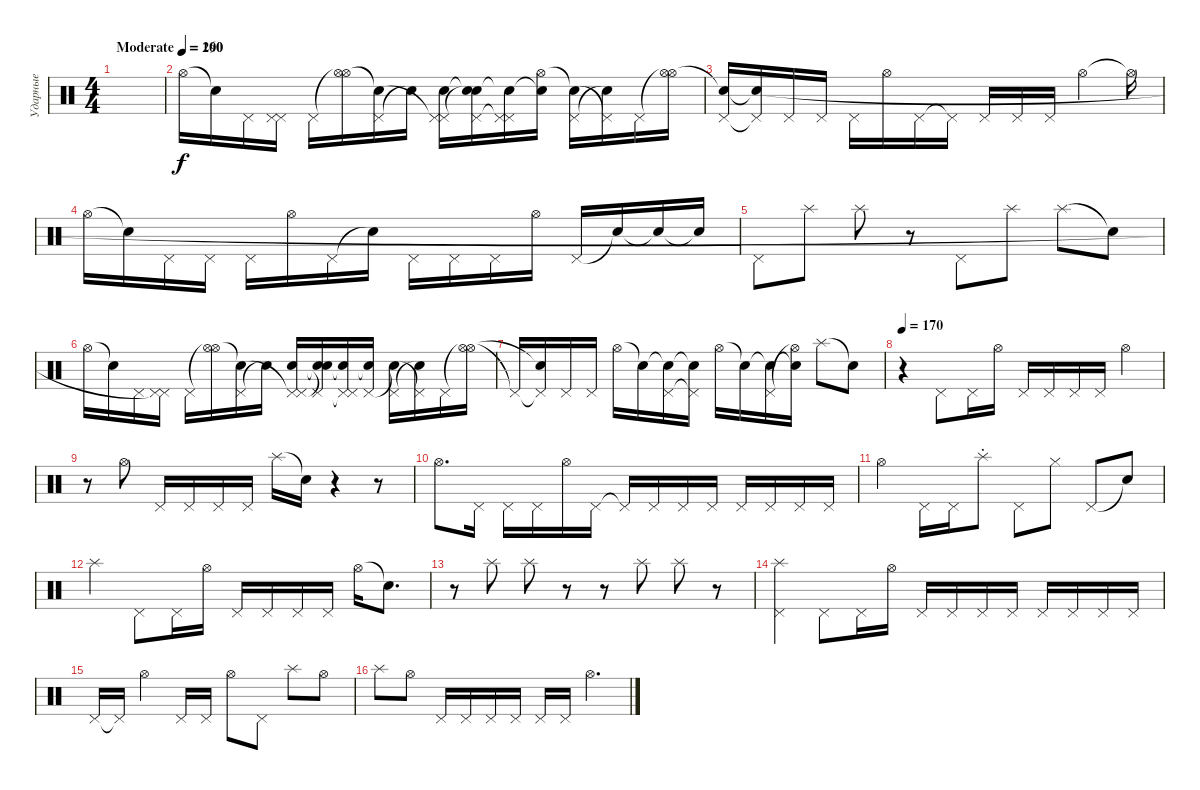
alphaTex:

\track ("Ударные" "Ударные") {instrument percussion}
\staff {score}
\articulation defaults
\ts (4 4)
\tempo (290 "Moderate")
\clef neutral
\ks c
|
\tempo (160)
"Hi-Hat (open)".16{volume 3} "Snare (hit)"{t}.16 "Pedal Hi-Hat (hit)".16 ("Pedal Hi-Hat (hit)" "Pedal Hi-Hat (hit)").16 "Pedal Hi-Hat (hit)".16 ("Hi-Hat (open)"{t} "Hi-Hat (open)").16 ("Pedal Hi-Hat (hit)" "Snare (hit)"{t}).16 "Snare (hit)"{t}.16 ("Pedal Hi-Hat (hit)" "Pedal Hi-Hat (hit)"{t} "Snare (hit)").16 ("Snare (hit)"{t} "Pedal Hi-Hat (hit)" "Snare (hit)"{t}).16 ("Snare (hit)"{t} "Pedal Hi-Hat (hit)"{t} "Pedal Hi-Hat (hit)").16 ("Snare (hit)"{t} "Hi-Hat (open)").16 ("Pedal Hi-Hat (hit)" "Snare (hit)"{t}).16 ("Snare (hit)"{t} "Pedal Hi-Hat (hit)"{t}).16 "Pedal Hi-Hat (hit)".16 ("Hi-Hat (open)"{t} "Hi-Hat (open)").16 |
("Pedal Hi-Hat (hit)" "Snare (hit)"{t}).16 ("Pedal Hi-Hat (hit)"{t} "Snare (hit)"{t}).16 "Pedal Hi-Hat (hit)".16 "Pedal Hi-Hat (hit)".16 "Pedal Hi-Hat (hit)".16 "Hi-Hat (open)".16 "Pedal Hi-Hat (hit)".16 "Pedal Hi-Hat (hit)"{t}.16 "Pedal Hi-Hat (hit)".16 "Pedal Hi-Hat (hit)".16 "Pedal Hi-Hat (hit)".16 "Hi-Hat (open)".4 "Hi-Hat (open)"{t}.16 |
"Hi-Hat (open)".16 "Snare (hit)"{t}.16 "Pedal Hi-Hat (hit)".16 "Pedal Hi-Hat (hit)".16 "Pedal Hi-Hat (hit)".16 "Hi-Hat (open)".16 "Pedal Hi-Hat (hit)".16 "Snare (hit)"{t}.16 "Pedal Hi-Hat (hit)".16 "Pedal Hi-Hat (hit)".16 "Pedal Hi-Hat (hit)".16 "Hi-Hat (open)".16 "Pedal Hi-Hat (hit)".16 "Snare (hit)"{t}.16 "Snare (hit)"{t}.16 "Snare (hit)"{t}.16 |
"Pedal Hi-Hat (hit)".8 "Splash (hit)".8 "Splash (hit)".8 r.8 "Pedal Hi-Hat (hit)".8 "Splash (hit)".8 "Splash (hit)".8 "Snare (hit)"{t}.8 |
"Hi-Hat (open)".16 "Snare (hit)"{t}.16 "Pedal Hi-Hat (hit)".16 ("Pedal Hi-Hat (hit)" "Pedal Hi-Hat (hit)"{t}).16 "Pedal Hi-Hat (hit)".16 ("Hi-Hat (open)"{t} "Hi-Hat (open)").16 ("Pedal Hi-Hat (hit)" "Snare (hit)"{t}).16 "Snare (hit)"{t}.16 ("Pedal Hi-Hat (hit)" "Pedal Hi-Hat (hit)"{t} "Snare (hit)").16 ("Snare (hit)"{t} "Pedal Hi-Hat (hit)" "Snare (hit)"{t}).16 ("Snare (hit)"{t} "Pedal Hi-Hat (hit)"{t} "Pedal Hi-Hat (hit)").16 ("Snare (hit)"{t} "Pedal Hi-Hat (hit)").16 ("Pedal Hi-Hat (hit)" "Snare (hit)"{t}).16 ("Snare (hit)"{t} "Pedal Hi-Hat (hit)"{t}).16 "Pedal Hi-Hat (hit)".16 ("Hi-Hat (open)"{t} "Hi-Hat (open)").16 |
"Pedal Hi-Hat (hit)"{t}.16 ("Pedal Hi-Hat (hit)"{t} "Snare (hit)"{t}).16 "Pedal Hi-Hat (hit)".16 "Pedal Hi-Hat (hit)".16 "Hi-Hat (open)".16 "Snare (hit)"{t}.16 ("Snare (hit)"{t} "Pedal Hi-Hat (hit)").16 ("Snare (hit)"{t} "Pedal Hi-Hat (hit)"{t}).16 "Hi-Hat (open)".16 "Snare (hit)"{t}.16 ("Snare (hit)"{t} "Pedal Hi-Hat (hit)").16 ("Snare (hit)"{t} "Hi-Hat (open)"{t}).16 "Splash (hit)".8 "Snare (hit)"{t}.8 |
\tempo 170
r.4 "Pedal Hi-Hat (hit)".8 "Pedal Hi-Hat (hit)".16 "Hi-Hat (open)".16 "Pedal Hi-Hat (hit)".16 "Pedal Hi-Hat (hit)".16 "Pedal Hi-Hat (hit)".16 "Pedal Hi-Hat (hit)".16 "Hi-Hat (open)".4 |
r.8 "Hi-Hat (open)".8 "Pedal Hi-Hat (hit)".16 "Pedal Hi-Hat (hit)".16 "Pedal Hi-Hat (hit)".16 "Pedal Hi-Hat (hit)".16 "Splash (hit)".16 "Snare (hit)"{t}.16 r.4 r.8 |
"Hi-Hat (open)".8{d} "Pedal Hi-Hat (hit)".16 "Pedal Hi-Hat (hit)".16 "Pedal Hi-Hat (hit)".16 "Hi-Hat (open)".16 "Pedal Hi-Hat (hit)".16 "Pedal Hi-Hat (hit)"{t}.16 "Pedal Hi-Hat (hit)".16 "Pedal Hi-Hat (hit)".16 "Pedal Hi-Hat (hit)".16 "Pedal Hi-Hat (hit)".16 "Pedal Hi-Hat (hit)".16 "Pedal Hi-Hat (hit)".16 "Pedal Hi-Hat (hit)".16 |
"Hi-Hat (open)".4 "Pedal Hi-Hat (hit)".16 "Pedal Hi-Hat (hit)".16 "Splash (hit)"{st}.8 "Pedal Hi-Hat (hit)".8 "Hi-Hat (closed)".8 "Pedal Hi-Hat (hit)".8 "Snare (hit)"{t}.8 |
"Splash (hit)".4 "Pedal Hi-Hat (hit)".8 "Pedal Hi-Hat (hit)".16 "Hi-Hat (open)".16 "Pedal Hi-Hat (hit)".16 "Pedal Hi-Hat (hit)".16 "Pedal Hi-Hat (hit)".16 "Pedal Hi-Hat (hit)".16 "Hi-Hat (open)".16 "Snare (hit)"{t}.8{d} |
r.8 "Splash (hit)".8 "Splash (hit)".8 r.8 r.8 "Splash (hit)".8 "Splash (hit)".8 r.8 |
("Pedal Hi-Hat (hit)" "Splash (hit)").4 "Pedal Hi-Hat (hit)".8 "Pedal Hi-Hat (hit)".16 "Hi-Hat (open)".16 "Pedal Hi-Hat (hit)".16 "Pedal Hi-Hat (hit)".16 "Pedal Hi-Hat (hit)".16 "Pedal Hi-Hat (hit)".16 "Pedal Hi-Hat (hit)".16 "Pedal Hi-Hat (hit)".16 "Pedal Hi-Hat (hit)".16 "Pedal Hi-Hat (hit)".16 |
"Pedal Hi-Hat (hit)".16 "Pedal Hi-Hat (hit)"{t}.16 "Hi-Hat (open)".4 "Pedal Hi-Hat (hit)".16 "Pedal Hi-Hat (hit)".16 "Hi-Hat (open)".8 "Pedal Hi-Hat (hit)".8 "Splash (hit)".8 "Hi-Hat (open)".8 |
"Splash (hit)".8 "Hi-Hat (open)".8 "Pedal Hi-Hat (hit)".16 "Pedal Hi-Hat (hit)".16 "Pedal Hi-Hat (hit)".16 "Pedal Hi-Hat (hit)".16 "Pedal Hi-Hat (hit)".16 "Pedal Hi-Hat (hit)".16 "Hi-Hat (open)".4{d}
